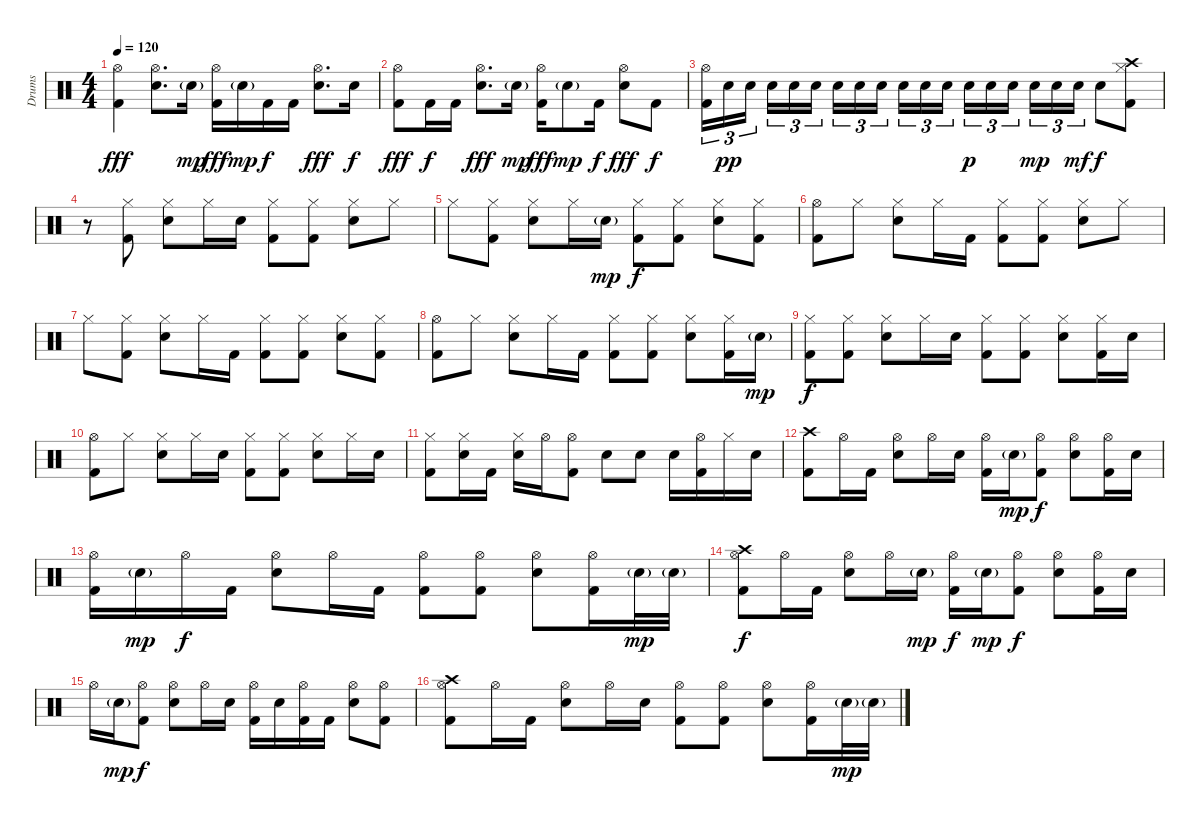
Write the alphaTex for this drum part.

\track ("Drums" "Drums") {instrument percussion}
\staff {score}
\articulation defaults
\ts (4 4)
\tempo 120
\clef neutral
\ks c
("Hi-Hat (open)" "Kick (hit) 2").4{dy fff} ("Hi-Hat (open)" "Electric Snare (hit)").8{d} "Electric Snare (hit)"{g}.16{dy mp} ("Hi-Hat (open)" "Kick (hit) 2").16{dy fff} "Electric Snare (hit)"{g}.16{dy mp} "Kick (hit) 2".16{dy f} "Kick (hit) 2".16 ("Hi-Hat (open)" "Electric Snare (hit)").8{d dy fff} "Electric Snare (hit)".16{dy f} |
("Hi-Hat (open)" "Kick (hit) 2").8{dy fff} "Kick (hit) 2".16{dy f} "Kick (hit) 2".16 ("Hi-Hat (open)" "Electric Snare (hit)").8{d dy fff} "Electric Snare (hit)"{g}.16{dy mp} ("Hi-Hat (open)" "Kick (hit) 2").16{dy fff} "Electric Snare (hit)"{g}.8{dy mp} "Kick (hit) 2".16{dy f} ("Hi-Hat (open)" "Electric Snare (hit)").8{dy fff} "Kick (hit) 2".8{dy f} |
("Hi-Hat (open)" "Kick (hit) 2").16{tu (3 2)} "Electric Snare (hit)".16{tu (3 2) dy pp} "Electric Snare (hit)".16{tu (3 2) beam splitsecondary} "Electric Snare (hit)".16{tu (3 2)} "Electric Snare (hit)".16{tu (3 2)} "Electric Snare (hit)".16{tu (3 2)} "Electric Snare (hit)".16{tu (3 2)} "Electric Snare (hit)".16{tu (3 2)} "Electric Snare (hit)".16{tu (3 2) beam splitsecondary} "Electric Snare (hit)".16{tu (3 2)} "Electric Snare (hit)".16{tu (3 2)} "Electric Snare (hit)".16{tu (3 2)} "Electric Snare (hit)".16{tu (3 2) dy p} "Electric Snare (hit)".16{tu (3 2)} "Electric Snare (hit)".16{tu (3 2) beam splitsecondary} "Electric Snare (hit)".16{tu (3 2) dy mp} "Electric Snare (hit)".16{tu (3 2)} "Electric Snare (hit)".16{tu (3 2) dy mf} "Electric Snare (hit)".8{dy f} ("Crash high (hit)" "Hi-Hat (closed)" "Kick (hit) 2").8 |
r.8 ("Hi-Hat (closed)" "Kick (hit) 2").8 ("Hi-Hat (closed)" "Electric Snare (hit)").8 "Hi-Hat (closed)".16 "Electric Snare (hit)".16 ("Hi-Hat (closed)" "Kick (hit) 2").8 ("Hi-Hat (closed)" "Kick (hit) 2").8 ("Hi-Hat (closed)" "Electric Snare (hit)").8 "Hi-Hat (closed)".8 |
"Hi-Hat (closed)".8 ("Hi-Hat (closed)" "Kick (hit) 2").8 ("Hi-Hat (closed)" "Electric Snare (hit)").8 "Hi-Hat (closed)".16 "Electric Snare (hit)"{g}.16{dy mp} ("Hi-Hat (closed)" "Kick (hit) 2").8{dy f} ("Hi-Hat (closed)" "Kick (hit) 2").8 ("Hi-Hat (closed)" "Electric Snare (hit)").8 ("Hi-Hat (closed)" "Kick (hit) 2").8 |
("Hi-Hat (open)" "Kick (hit) 2").8 "Hi-Hat (closed)".8 ("Hi-Hat (closed)" "Electric Snare (hit)").8 "Hi-Hat (closed)".16 "Kick (hit) 2".16 ("Hi-Hat (closed)" "Kick (hit) 2").8 ("Hi-Hat (closed)" "Kick (hit) 2").8 ("Hi-Hat (closed)" "Electric Snare (hit)").8 "Hi-Hat (closed)".8 |
"Hi-Hat (closed)".8 ("Hi-Hat (closed)" "Kick (hit) 2").8 ("Hi-Hat (closed)" "Electric Snare (hit)").8 "Hi-Hat (closed)".16 "Kick (hit) 2".16 ("Hi-Hat (closed)" "Kick (hit) 2").8 ("Hi-Hat (closed)" "Kick (hit) 2").8 ("Hi-Hat (closed)" "Electric Snare (hit)").8 ("Hi-Hat (closed)" "Kick (hit) 2").8 |
("Hi-Hat (open)" "Kick (hit) 2").8 "Hi-Hat (closed)".8 ("Hi-Hat (closed)" "Electric Snare (hit)").8 "Hi-Hat (closed)".16 "Kick (hit) 2".16 ("Hi-Hat (closed)" "Kick (hit) 2").8 ("Hi-Hat (closed)" "Kick (hit) 2").8 ("Hi-Hat (closed)" "Electric Snare (hit)").8 ("Hi-Hat (closed)" "Kick (hit) 2").16 "Electric Snare (hit)"{g}.16{dy mp} |
("Hi-Hat (closed)" "Kick (hit) 2").8{dy f} ("Hi-Hat (closed)" "Kick (hit) 2").8 ("Hi-Hat (closed)" "Electric Snare (hit)").8 "Hi-Hat (closed)".16 "Electric Snare (hit)".16 ("Hi-Hat (closed)" "Kick (hit) 2").8 ("Hi-Hat (closed)" "Kick (hit) 2").8 ("Hi-Hat (closed)" "Electric Snare (hit)").8 ("Hi-Hat (closed)" "Kick (hit) 2").16 "Electric Snare (hit)".16 |
("Hi-Hat (open)" "Kick (hit) 2").8 "Hi-Hat (closed)".8 ("Hi-Hat (closed)" "Electric Snare (hit)").8 "Hi-Hat (closed)".16 "Electric Snare (hit)".16 ("Hi-Hat (closed)" "Kick (hit) 2").8 ("Hi-Hat (closed)" "Kick (hit) 2").8 ("Hi-Hat (closed)" "Electric Snare (hit)").8 "Hi-Hat (closed)".16 "Electric Snare (hit)".16 |
("Hi-Hat (closed)" "Kick (hit) 2").8 ("Hi-Hat (closed)" "Electric Snare (hit)").16 "Kick (hit) 2".16 ("Hi-Hat (closed)" "Electric Snare (hit)").16 "Hi-Hat (open)".16 ("Hi-Hat (open)" "Kick (hit) 2").8 "Electric Snare (hit)".8 "Electric Snare (hit)".8 "Electric Snare (hit)".16 ("Hi-Hat (open)" "Kick (hit) 2").16 "Hi-Hat (closed)".16 "Electric Snare (hit)".16 |
("Crash high (hit)" "Kick (hit) 2").8 "Hi-Hat (open)".16 "Kick (hit) 2".16 ("Hi-Hat (open)" "Electric Snare (hit)").8 "Hi-Hat (open)".16 "Electric Snare (hit)".16 ("Hi-Hat (open)" "Kick (hit) 2").16 "Electric Snare (hit)"{g}.16{dy mp} ("Hi-Hat (open)" "Kick (hit) 2").8{dy f} ("Hi-Hat (open)" "Electric Snare (hit)").8 ("Hi-Hat (open)" "Kick (hit) 2").16 "Electric Snare (hit)".16 |
("Hi-Hat (open)" "Kick (hit) 2").16 "Electric Snare (hit)"{g}.16{dy mp} "Hi-Hat (open)".16{dy f} "Kick (hit) 2".16 ("Hi-Hat (open)" "Electric Snare (hit)").8 "Hi-Hat (open)".16 "Kick (hit) 2".16 ("Hi-Hat (open)" "Kick (hit) 2").8 ("Hi-Hat (open)" "Kick (hit) 2").8 ("Hi-Hat (open)" "Electric Snare (hit)").8 ("Hi-Hat (open)" "Kick (hit) 2").16 "Electric Snare (hit)"{g}.32{dy mp} "Electric Snare (hit)"{g}.32 |
("Crash high (hit)" "Hi-Hat (open)" "Kick (hit) 2").8{dy f} "Hi-Hat (open)".16 "Kick (hit) 2".16 ("Hi-Hat (open)" "Electric Snare (hit)").8 "Hi-Hat (open)".16 "Electric Snare (hit)"{g}.16{dy mp} ("Hi-Hat (open)" "Kick (hit) 2").16{dy f} "Electric Snare (hit)"{g}.16{dy mp} ("Hi-Hat (open)" "Kick (hit) 2").8{dy f} ("Hi-Hat (open)" "Electric Snare (hit)").8 ("Hi-Hat (open)" "Kick (hit) 2").16 "Electric Snare (hit)".16 |
"Hi-Hat (open)".16 "Electric Snare (hit)"{g}.16{dy mp} ("Hi-Hat (open)" "Kick (hit) 2").8{dy f} ("Hi-Hat (open)" "Electric Snare (hit)").8 "Hi-Hat (open)".16 "Electric Snare (hit)".16 ("Hi-Hat (open)" "Kick (hit) 2").16 "Electric Snare (hit)".16 ("Hi-Hat (open)" "Kick (hit) 2").16 "Kick (hit) 2".16 ("Hi-Hat (open)" "Electric Snare (hit)").8 ("Hi-Hat (open)" "Kick (hit) 2").8 |
("Crash high (hit)" "Hi-Hat (open)" "Kick (hit) 2").8 "Hi-Hat (open)".16 "Kick (hit) 2".16 ("Hi-Hat (open)" "Electric Snare (hit)").8 "Hi-Hat (open)".16 "Electric Snare (hit)".16 ("Hi-Hat (open)" "Kick (hit) 2").8 ("Hi-Hat (open)" "Kick (hit) 2").8 ("Hi-Hat (open)" "Electric Snare (hit)").8 ("Hi-Hat (open)" "Kick (hit) 2").16 "Electric Snare (hit)"{g}.32{dy mp} "Electric Snare (hit)"{g}.32
